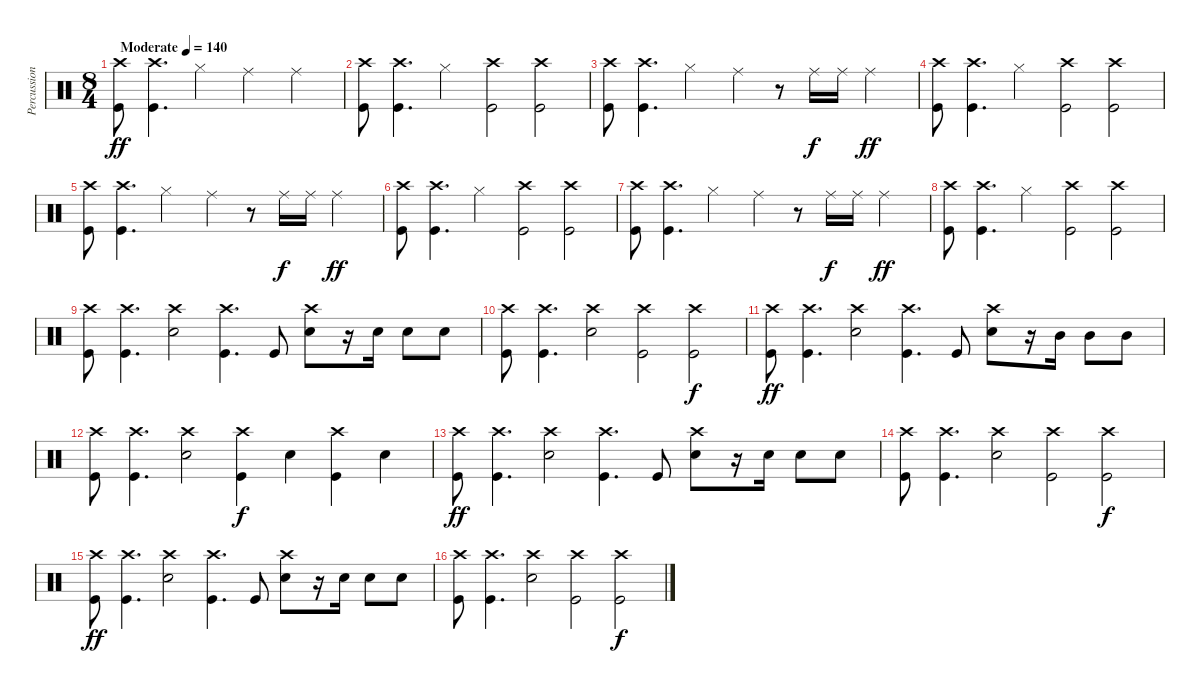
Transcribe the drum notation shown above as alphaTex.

\track ("Percussion" "Percussion") {instrument percussion}
\staff {score}
\articulation defaults
\ts (8 4)
\tempo (140 "Moderate")
\clef neutral
\ks c
("Crash high (hit)" "Kick (hit)").8{dy ff} ("Crash high (hit)" "Kick (hit)").4{d} "Hi-Hat (closed)".2 "Ride (middle)".2 "Ride (middle)".2 |
("Crash high (hit)" "Kick (hit)").8 ("Crash high (hit)" "Kick (hit)").4{d} "Hi-Hat (closed)".2 ("Crash high (hit)" "Kick (hit)").2 ("Crash high (hit)" "Kick (hit)").2 |
("Crash high (hit)" "Kick (hit)").8 ("Crash high (hit)" "Kick (hit)").4{d} "Hi-Hat (closed)".2 "Ride (middle)".4 r.8 "Ride (middle)".16{dy f} "Ride (middle)".16 "Ride (middle)".2{dy ff} |
("Crash high (hit)" "Kick (hit)").8 ("Crash high (hit)" "Kick (hit)").4{d} "Hi-Hat (closed)".2 ("Crash high (hit)" "Kick (hit)").2 ("Crash high (hit)" "Kick (hit)").2 |
("Crash high (hit)" "Kick (hit)").8 ("Crash high (hit)" "Kick (hit)").4{d} "Hi-Hat (closed)".2 "Ride (middle)".4 r.8 "Ride (middle)".16{dy f} "Ride (middle)".16 "Ride (middle)".2{dy ff} |
("Crash high (hit)" "Kick (hit)").8 ("Crash high (hit)" "Kick (hit)").4{d} "Hi-Hat (closed)".2 ("Crash high (hit)" "Kick (hit)").2 ("Crash high (hit)" "Kick (hit)").2 |
("Crash high (hit)" "Kick (hit)").8 ("Crash high (hit)" "Kick (hit)").4{d} "Hi-Hat (closed)".2 "Ride (middle)".4 r.8 "Ride (middle)".16{dy f} "Ride (middle)".16 "Ride (middle)".2{dy ff} |
("Crash high (hit)" "Kick (hit)").8 ("Crash high (hit)" "Kick (hit)").4{d} "Hi-Hat (closed)".2 ("Crash high (hit)" "Kick (hit)").2 ("Crash high (hit)" "Kick (hit)").2 |
("Crash high (hit)" "Kick (hit)").8 ("Crash high (hit)" "Kick (hit)").4{d} ("Crash high (hit)" "Electric Snare (hit)").2 ("Crash high (hit)" "Kick (hit)").4{d} "Kick (hit)".8 ("Crash high (hit)" "Electric Snare (hit)").8 r.16 "Electric Snare (hit)".16 "Electric Snare (hit)".8 "Electric Snare (hit)".8 |
("Crash high (hit)" "Kick (hit)").8 ("Crash high (hit)" "Kick (hit)").4{d} ("Crash high (hit)" "Electric Snare (hit)").2 ("Crash high (hit)" "Kick (hit)").2 ("Crash high (hit)" "Kick (hit)").2{dy f} |
("Crash high (hit)" "Kick (hit)").8{dy ff} ("Crash high (hit)" "Kick (hit)").4{d} ("Crash high (hit)" "Electric Snare (hit)").2 ("Crash high (hit)" "Kick (hit)").4{d} "Kick (hit)".8 ("Crash high (hit)" "Electric Snare (hit)").8 r.16 "Mid Tom (hit)".16 "Mid Tom (hit)".8 "Mid Tom (hit)".8 |
("Crash high (hit)" "Kick (hit)").8 ("Crash high (hit)" "Kick (hit)").4{d} ("Crash high (hit)" "Electric Snare (hit)").2 ("Crash high (hit)" "Kick (hit)").4{dy f} "Electric Snare (hit)".4 ("Crash high (hit)" "Kick (hit)").4 "Electric Snare (hit)".4 |
("Crash high (hit)" "Kick (hit)").8{dy ff} ("Crash high (hit)" "Kick (hit)").4{d} ("Crash high (hit)" "Electric Snare (hit)").2 ("Crash high (hit)" "Kick (hit)").4{d} "Kick (hit)".8 ("Crash high (hit)" "Electric Snare (hit)").8 r.16 "Electric Snare (hit)".16 "Electric Snare (hit)".8 "Electric Snare (hit)".8 |
("Crash high (hit)" "Kick (hit)").8 ("Crash high (hit)" "Kick (hit)").4{d} ("Crash high (hit)" "Electric Snare (hit)").2 ("Crash high (hit)" "Kick (hit)").2 ("Crash high (hit)" "Kick (hit)").2{dy f} |
("Crash high (hit)" "Kick (hit)").8{dy ff} ("Crash high (hit)" "Kick (hit)").4{d} ("Crash high (hit)" "Electric Snare (hit)").2 ("Crash high (hit)" "Kick (hit)").4{d} "Kick (hit)".8 ("Crash high (hit)" "Electric Snare (hit)").8 r.16 "Electric Snare (hit)".16 "Electric Snare (hit)".8 "Electric Snare (hit)".8 |
("Crash high (hit)" "Kick (hit)").8 ("Crash high (hit)" "Kick (hit)").4{d} ("Crash high (hit)" "Electric Snare (hit)").2 ("Crash high (hit)" "Kick (hit)").2 ("Crash high (hit)" "Kick (hit)").2{dy f}
